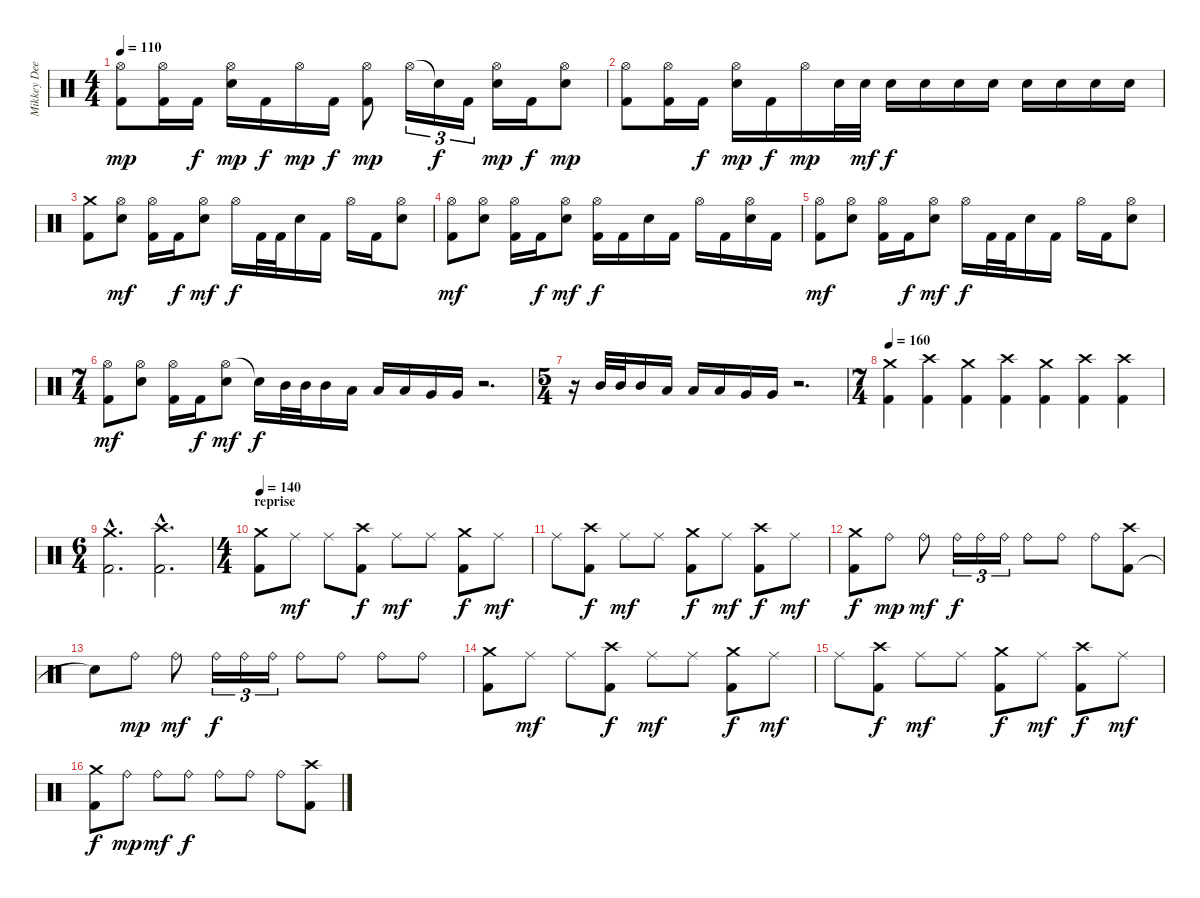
\track ("Mikkey Dee" "Mikkey Dee") {instrument percussion}
\staff {score}
\articulation defaults
\ts (4 4)
\tempo 110
\clef neutral
\ks c
("Kick (hit) 2" "Hi-Hat (open)").8{dy mp} ("Kick (hit) 2" "Hi-Hat (open)").16 "Kick (hit) 2".16{dy f} ("Hi-Hat (open)" "Snare (hit) 2").16{dy mp} "Kick (hit) 2".16{dy f} "Hi-Hat (open)".16{dy mp} "Kick (hit) 2".16{dy f} ("Kick (hit) 2" "Hi-Hat (open)").8{dy mp} "Hi-Hat (open)".16{tu (3 2)} "Snare (hit)"{t}.16{tu (3 2) dy f} "Kick (hit) 2".16{tu (3 2)} ("Hi-Hat (open)" "Snare (hit) 2").16{dy mp} "Kick (hit) 2".16{dy f} ("Hi-Hat (open)" "Snare (hit) 2").8{dy mp} |
("Kick (hit) 2" "Hi-Hat (open)").8 ("Kick (hit) 2" "Hi-Hat (open)").16 "Kick (hit) 2".16{dy f} ("Hi-Hat (open)" "Snare (hit) 2").16{dy mp} "Kick (hit) 2".16{dy f} "Hi-Hat (open)".16{dy mp} "Snare (hit) 2".32 "Snare (hit) 2".32{dy mf} "Snare (hit) 2".16{dy f} "Snare (hit) 2".16 "Snare (hit) 2".16 "Snare (hit) 2".16 "Snare (hit) 2".16 "Snare (hit) 2".16 "Snare (hit) 2".16 "Snare (hit) 2".16 |
("Kick (hit) 2" "Crash medium (hit)").8 ("Hi-Hat (open)" "Snare (hit) 2").8{dy mf} ("Kick (hit) 2" "Hi-Hat (open)").16 "Kick (hit) 2".16{dy f} ("Hi-Hat (open)" "Snare (hit) 2").8{dy mf} "Hi-Hat (open)".16{dy f} "Kick (hit) 2".32 "Kick (hit) 2".32 "Snare (hit) 2".16 "Kick (hit) 2".16 "Hi-Hat (open)".16 "Kick (hit) 2".16 ("Hi-Hat (open)" "Snare (hit) 2").8 |
("Kick (hit) 2" "Hi-Hat (open)").8{dy mf} ("Hi-Hat (open)" "Snare (hit) 2").8 ("Kick (hit) 2" "Hi-Hat (open)").16 "Kick (hit) 2".16{dy f} ("Hi-Hat (open)" "Snare (hit) 2").8{dy mf} ("Kick (hit) 2" "Hi-Hat (open)").16{dy f} "Kick (hit) 2".16 "Snare (hit) 2".16 "Kick (hit) 2".16 "Hi-Hat (open)".16 "Kick (hit) 2".16 ("Hi-Hat (open)" "Snare (hit) 2").16 "Kick (hit) 2".16 |
("Kick (hit) 2" "Hi-Hat (open)").8{dy mf} ("Hi-Hat (open)" "Snare (hit) 2").8 ("Kick (hit) 2" "Hi-Hat (open)").16 "Kick (hit) 2".16{dy f} ("Hi-Hat (open)" "Snare (hit) 2").8{dy mf} "Hi-Hat (open)".16{dy f} "Kick (hit) 2".32 "Kick (hit) 2".32 "Snare (hit) 2".16 "Kick (hit) 2".16 "Hi-Hat (open)".16 "Kick (hit) 2".16 ("Hi-Hat (open)" "Snare (hit) 2").8 |
\ts (7 4)
("Kick (hit) 2" "Hi-Hat (open)").8{dy mf} ("Hi-Hat (open)" "Snare (hit) 2").8 ("Kick (hit) 2" "Hi-Hat (open)").16 "Kick (hit) 2".16{dy f} ("Hi-Hat (open)" "Snare (hit) 2").8{dy mf} "Snare (hit)"{t}.16{dy f} "Mid Tom (hit)".32 "Mid Tom (hit)".32 "Mid Tom (hit)".16 "Low Tom (hit)".16 "Low Tom (hit)".16 "Low Tom (hit)".16 "Very Low Tom (hit)".16 "Very Low Tom (hit)".16 r.2{d} |
\ts (5 4)
r.16 "Mid Tom (hit)".32 "Mid Tom (hit)".32 "Mid Tom (hit)".16 "Low Tom (hit)".16 "Low Tom (hit)".16 "Low Tom (hit)".16 "Very Low Tom (hit)".16 "Very Low Tom (hit)".16 r.2{d} |
\ts (7 4)
\tempo 165
\tempo 160
("Kick (hit) 2" "Crash medium (hit)").4 ("Kick (hit) 2" "Crash high (hit)").4 ("Kick (hit) 2" "Crash medium (hit)").4 ("Kick (hit) 2" "Crash high (hit)").4 ("Kick (hit) 2" "Crash medium (hit)").4 ("Kick (hit) 2" "Crash high (hit)").4 ("Kick (hit) 2" "Crash high (hit)").4 |
\ts (6 4)
("Kick (hit) 2"{hac} "Crash medium (hit)"{hac}).2{d} ("Kick (hit) 2"{hac} "Crash high (hit)"{hac}).2{d} |
\ts (4 4)
\section ("" "reprise")
\tempo 140
("Kick (hit) 2" "Crash medium (hit)").8 "Ride (middle)".8{dy mf} "Ride (middle)".8 ("Kick (hit) 2" "Crash high (hit)").8{dy f} "Ride (middle)".8{dy mf} "Ride (middle)".8 ("Kick (hit) 2" "Crash medium (hit)").8{dy f} "Ride (middle)".8{dy mf} |
"Ride (middle)".8 ("Kick (hit) 2" "Crash high (hit)").8{dy f} "Ride (middle)".8{dy mf} "Ride (middle)".8 ("Kick (hit) 2" "Crash medium (hit)").8{dy f} "Ride (middle)".8{dy mf} ("Kick (hit) 2" "Crash high (hit)").8{dy f} "Ride (middle)".8{dy mf} |
("Kick (hit) 2" "Crash medium (hit)").8{dy f} "Ride (bell)".8{dy mp} "Ride (bell)".8{dy mf} "Ride (bell)".16{tu (3 2) dy f} "Ride (bell)".16{tu (3 2)} "Ride (bell)".16{tu (3 2)} "Ride (bell)".8 "Ride (bell)".8 "Ride (bell)".8 ("Kick (hit) 2" "Crash high (hit)").8 |
"Snare (hit)"{t}.8 "Ride (bell)".8{dy mp} "Ride (bell)".8{dy mf} "Ride (bell)".16{tu (3 2) dy f} "Ride (bell)".16{tu (3 2)} "Ride (bell)".16{tu (3 2)} "Ride (bell)".8 "Ride (bell)".8 "Ride (bell)".8 "Ride (bell)".8 |
("Kick (hit) 2" "Crash medium (hit)").8 "Ride (middle)".8{dy mf} "Ride (middle)".8 ("Kick (hit) 2" "Crash high (hit)").8{dy f} "Ride (middle)".8{dy mf} "Ride (middle)".8 ("Kick (hit) 2" "Crash medium (hit)").8{dy f} "Ride (middle)".8{dy mf} |
"Ride (middle)".8 ("Kick (hit) 2" "Crash high (hit)").8{dy f} "Ride (middle)".8{dy mf} "Ride (middle)".8 ("Kick (hit) 2" "Crash medium (hit)").8{dy f} "Ride (middle)".8{dy mf} ("Kick (hit) 2" "Crash high (hit)").8{dy f} "Ride (middle)".8{dy mf} |
("Kick (hit) 2" "Crash medium (hit)").8{dy f} "Ride (bell)".8{dy mp} "Ride (bell)".8{dy mf} "Ride (bell)".8{dy f} "Ride (bell)".8 "Ride (bell)".8 "Ride (bell)".8 ("Kick (hit) 2" "Crash high (hit)").8
